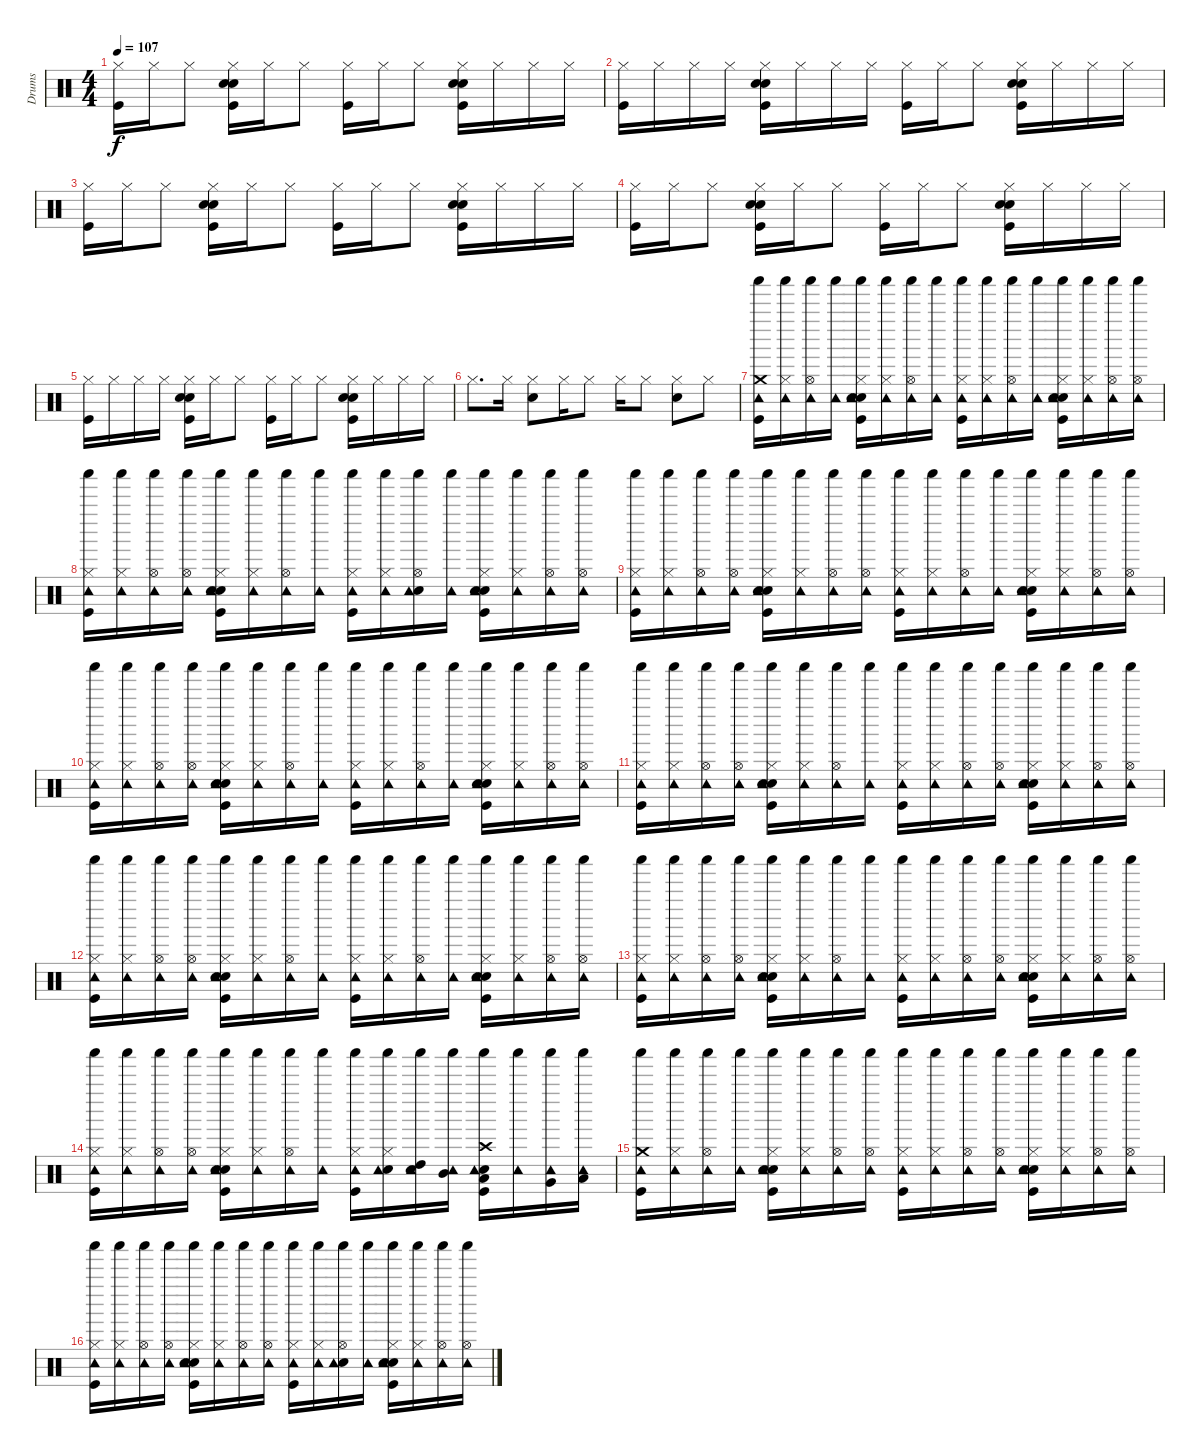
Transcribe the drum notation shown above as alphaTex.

\track ("Drums" "Drums") {instrument percussion}
\staff {score}
\articulation defaults
\ts (4 4)
\tempo 107
\clef neutral
\ks c
("Kick (hit)" "Hi-Hat (closed)").16{dy f} "Hi-Hat (closed)".16 "Hi-Hat (closed)".8 ("Kick (hit)" "Snare (hit) 2" "Hand Clap (hit)" "Hi-Hat (closed)").16 "Hi-Hat (closed)".16 "Hi-Hat (closed)".8 ("Kick (hit)" "Hi-Hat (closed)").16 "Hi-Hat (closed)".16 "Hi-Hat (closed)".8 ("Kick (hit)" "Snare (hit) 2" "Hand Clap (hit)" "Hi-Hat (closed)").16 "Hi-Hat (closed)".16 "Hi-Hat (closed)".16 "Hi-Hat (closed)".16 |
("Kick (hit)" "Hi-Hat (closed)").16 "Hi-Hat (closed)".16 "Hi-Hat (closed)".16 "Hi-Hat (closed)".16 ("Kick (hit)" "Snare (hit) 2" "Hand Clap (hit)" "Hi-Hat (closed)").16 "Hi-Hat (closed)".16 "Hi-Hat (closed)".16 "Hi-Hat (closed)".16 ("Kick (hit)" "Hi-Hat (closed)").16 "Hi-Hat (closed)".16 "Hi-Hat (closed)".8 ("Kick (hit)" "Snare (hit) 2" "Hand Clap (hit)" "Hi-Hat (closed)").16 "Hi-Hat (closed)".16 "Hi-Hat (closed)".16 "Hi-Hat (closed)".16 |
("Kick (hit)" "Hi-Hat (closed)").16 "Hi-Hat (closed)".16 "Hi-Hat (closed)".8 ("Kick (hit)" "Snare (hit) 2" "Hand Clap (hit)" "Hi-Hat (closed)").16 "Hi-Hat (closed)".16 "Hi-Hat (closed)".8 ("Kick (hit)" "Hi-Hat (closed)").16 "Hi-Hat (closed)".16 "Hi-Hat (closed)".8 ("Kick (hit)" "Snare (hit) 2" "Hand Clap (hit)" "Hi-Hat (closed)").16 "Hi-Hat (closed)".16 "Hi-Hat (closed)".16 "Hi-Hat (closed)".16 |
("Kick (hit)" "Hi-Hat (closed)").16 "Hi-Hat (closed)".16 "Hi-Hat (closed)".8 ("Kick (hit)" "Snare (hit) 2" "Hand Clap (hit)" "Hi-Hat (closed)").16 "Hi-Hat (closed)".16 "Hi-Hat (closed)".8 ("Kick (hit)" "Hi-Hat (closed)").16 "Hi-Hat (closed)".16 "Hi-Hat (closed)".8 ("Kick (hit)" "Snare (hit) 2" "Hand Clap (hit)" "Hi-Hat (closed)").16 "Hi-Hat (closed)".16 "Hi-Hat (closed)".16 "Hi-Hat (closed)".16 |
("Kick (hit)" "Hi-Hat (closed)").16 "Hi-Hat (closed)".16 "Hi-Hat (closed)".16 "Hi-Hat (closed)".16 ("Kick (hit)" "Snare (hit) 2" "Hand Clap (hit)" "Hi-Hat (closed)").16 "Hi-Hat (closed)".16 "Hi-Hat (closed)".8 ("Kick (hit)" "Hi-Hat (closed)").16 "Hi-Hat (closed)".16 "Hi-Hat (closed)".8 ("Kick (hit)" "Snare (hit) 2" "Hand Clap (hit)" "Hi-Hat (closed)").16 "Hi-Hat (closed)".16 "Hi-Hat (closed)".16 "Hi-Hat (closed)".16 |
"Hi-Hat (closed)".8{d} "Hi-Hat (closed)".16 ("Hand Clap (hit)" "Hi-Hat (closed)").8 "Hi-Hat (closed)".16 "Hi-Hat (closed)".8 "Hi-Hat (closed)".16 "Hi-Hat (closed)".8 ("Hand Clap (hit)" "Hi-Hat (closed)").8 "Hi-Hat (closed)".8 |
("Kick (hit)" "Tambourine (hit)" "Crash medium (hit)" "Shaker (hit)").16 ("Hi-Hat (closed)" "Tambourine (hit)" "Shaker (hit)").16 ("Hi-Hat (open)" "Tambourine (hit)" "Shaker (hit)").16 ("Tambourine (hit)" "Shaker (hit)").16 ("Kick (hit)" "Snare (hit) 2" "Hand Clap (hit)" "Hi-Hat (closed)" "Tambourine (hit)" "Shaker (hit)").16 ("Hi-Hat (closed)" "Tambourine (hit)" "Shaker (hit)").16 ("Hi-Hat (open)" "Tambourine (hit)" "Shaker (hit)").16 ("Tambourine (hit)" "Shaker (hit)").16 ("Kick (hit)" "Hi-Hat (closed)" "Tambourine (hit)" "Shaker (hit)").16 ("Hi-Hat (closed)" "Tambourine (hit)" "Shaker (hit)").16 ("Hi-Hat (open)" "Tambourine (hit)" "Shaker (hit)").16 ("Tambourine (hit)" "Shaker (hit)").16 ("Kick (hit)" "Snare (hit) 2" "Hand Clap (hit)" "Hi-Hat (closed)" "Tambourine (hit)" "Shaker (hit)").16 ("Hi-Hat (closed)" "Tambourine (hit)" "Shaker (hit)").16 ("Hi-Hat (open)" "Tambourine (hit)" "Shaker (hit)").16 ("Hi-Hat (open)" "Tambourine (hit)" "Shaker (hit)").16 |
("Kick (hit)" "Hi-Hat (closed)" "Tambourine (hit)" "Shaker (hit)").16 ("Hi-Hat (closed)" "Tambourine (hit)" "Shaker (hit)").16 ("Hi-Hat (open)" "Tambourine (hit)" "Shaker (hit)").16 ("Hi-Hat (open)" "Tambourine (hit)" "Shaker (hit)").16 ("Kick (hit)" "Snare (hit) 2" "Hand Clap (hit)" "Hi-Hat (closed)" "Tambourine (hit)" "Shaker (hit)").16 ("Hi-Hat (closed)" "Tambourine (hit)" "Shaker (hit)").16 ("Hi-Hat (open)" "Tambourine (hit)" "Shaker (hit)").16 ("Tambourine (hit)" "Shaker (hit)").16 ("Kick (hit)" "Hi-Hat (closed)" "Tambourine (hit)" "Shaker (hit)").16 ("Hi-Hat (closed)" "Tambourine (hit)" "Shaker (hit)").16 ("Hand Clap (hit)" "Hi-Hat (open)" "Tambourine (hit)" "Shaker (hit)").16 ("Tambourine (hit)" "Shaker (hit)").16 ("Kick (hit)" "Snare (hit) 2" "Hand Clap (hit)" "Hi-Hat (closed)" "Tambourine (hit)" "Shaker (hit)").16 ("Hi-Hat (closed)" "Tambourine (hit)" "Shaker (hit)").16 ("Hi-Hat (open)" "Tambourine (hit)" "Shaker (hit)").16 ("Hi-Hat (open)" "Tambourine (hit)" "Shaker (hit)").16 |
("Kick (hit)" "Hi-Hat (closed)" "Tambourine (hit)" "Shaker (hit)").16 ("Hi-Hat (closed)" "Tambourine (hit)" "Shaker (hit)").16 ("Hi-Hat (open)" "Tambourine (hit)" "Shaker (hit)").16 ("Hi-Hat (open)" "Tambourine (hit)" "Shaker (hit)").16 ("Kick (hit)" "Snare (hit) 2" "Hand Clap (hit)" "Hi-Hat (closed)" "Tambourine (hit)" "Shaker (hit)").16 ("Hi-Hat (closed)" "Tambourine (hit)" "Shaker (hit)").16 ("Hi-Hat (open)" "Tambourine (hit)" "Shaker (hit)").16 ("Hi-Hat (open)" "Tambourine (hit)" "Shaker (hit)").16 ("Kick (hit)" "Hi-Hat (closed)" "Tambourine (hit)" "Shaker (hit)").16 ("Hi-Hat (closed)" "Tambourine (hit)" "Shaker (hit)").16 ("Hi-Hat (open)" "Tambourine (hit)" "Shaker (hit)").16 ("Tambourine (hit)" "Shaker (hit)").16 ("Kick (hit)" "Snare (hit) 2" "Hand Clap (hit)" "Hi-Hat (closed)" "Tambourine (hit)" "Shaker (hit)").16 ("Hi-Hat (closed)" "Tambourine (hit)" "Shaker (hit)").16 ("Hi-Hat (open)" "Tambourine (hit)" "Shaker (hit)").16 ("Hi-Hat (open)" "Tambourine (hit)" "Shaker (hit)").16 |
("Kick (hit)" "Hi-Hat (closed)" "Tambourine (hit)" "Shaker (hit)").16 ("Hi-Hat (closed)" "Tambourine (hit)" "Shaker (hit)").16 ("Hi-Hat (open)" "Tambourine (hit)" "Shaker (hit)").16 ("Hi-Hat (open)" "Tambourine (hit)" "Shaker (hit)").16 ("Kick (hit)" "Snare (hit) 2" "Hand Clap (hit)" "Hi-Hat (closed)" "Tambourine (hit)" "Shaker (hit)").16 ("Hi-Hat (closed)" "Tambourine (hit)" "Shaker (hit)").16 ("Hi-Hat (open)" "Tambourine (hit)" "Shaker (hit)").16 ("Tambourine (hit)" "Shaker (hit)").16 ("Kick (hit)" "Hi-Hat (closed)" "Tambourine (hit)" "Shaker (hit)").16 ("Hi-Hat (closed)" "Tambourine (hit)" "Shaker (hit)").16 ("Hi-Hat (open)" "Tambourine (hit)" "Shaker (hit)").16 ("Tambourine (hit)" "Shaker (hit)").16 ("Kick (hit)" "Snare (hit) 2" "Hand Clap (hit)" "Hi-Hat (closed)" "Tambourine (hit)" "Shaker (hit)").16 ("Hi-Hat (closed)" "Tambourine (hit)" "Shaker (hit)").16 ("Hi-Hat (open)" "Tambourine (hit)" "Shaker (hit)").16 ("Hi-Hat (open)" "Tambourine (hit)" "Shaker (hit)").16 |
("Kick (hit)" "Hi-Hat (closed)" "Tambourine (hit)" "Shaker (hit)").16 ("Hi-Hat (closed)" "Tambourine (hit)" "Shaker (hit)").16 ("Hi-Hat (open)" "Tambourine (hit)" "Shaker (hit)").16 ("Hi-Hat (open)" "Tambourine (hit)" "Shaker (hit)").16 ("Kick (hit)" "Snare (hit) 2" "Hand Clap (hit)" "Hi-Hat (closed)" "Tambourine (hit)" "Shaker (hit)").16 ("Hi-Hat (closed)" "Tambourine (hit)" "Shaker (hit)").16 ("Hi-Hat (open)" "Tambourine (hit)" "Shaker (hit)").16 ("Tambourine (hit)" "Shaker (hit)").16 ("Kick (hit)" "Hi-Hat (closed)" "Tambourine (hit)" "Shaker (hit)").16 ("Hi-Hat (closed)" "Tambourine (hit)" "Shaker (hit)").16 ("Hi-Hat (open)" "Tambourine (hit)" "Shaker (hit)").16 ("Hi-Hat (open)" "Tambourine (hit)" "Shaker (hit)").16 ("Kick (hit)" "Snare (hit) 2" "Hand Clap (hit)" "Hi-Hat (closed)" "Tambourine (hit)" "Shaker (hit)").16 ("Hi-Hat (closed)" "Tambourine (hit)" "Shaker (hit)").16 ("Hi-Hat (open)" "Tambourine (hit)" "Shaker (hit)").16 ("Hi-Hat (open)" "Tambourine (hit)" "Shaker (hit)").16 |
("Kick (hit)" "Hi-Hat (closed)" "Tambourine (hit)" "Shaker (hit)").16 ("Hi-Hat (closed)" "Tambourine (hit)" "Shaker (hit)").16 ("Hi-Hat (open)" "Tambourine (hit)" "Shaker (hit)").16 ("Hi-Hat (open)" "Tambourine (hit)" "Shaker (hit)").16 ("Kick (hit)" "Snare (hit) 2" "Hand Clap (hit)" "Hi-Hat (closed)" "Tambourine (hit)" "Shaker (hit)").16 ("Hi-Hat (closed)" "Tambourine (hit)" "Shaker (hit)").16 ("Hi-Hat (open)" "Tambourine (hit)" "Shaker (hit)").16 ("Tambourine (hit)" "Shaker (hit)").16 ("Kick (hit)" "Hi-Hat (closed)" "Tambourine (hit)" "Shaker (hit)").16 ("Hi-Hat (closed)" "Tambourine (hit)" "Shaker (hit)").16 ("Hi-Hat (open)" "Tambourine (hit)" "Shaker (hit)").16 ("Tambourine (hit)" "Shaker (hit)").16 ("Kick (hit)" "Snare (hit) 2" "Hand Clap (hit)" "Hi-Hat (closed)" "Tambourine (hit)" "Shaker (hit)").16 ("Hi-Hat (closed)" "Tambourine (hit)" "Shaker (hit)").16 ("Hi-Hat (open)" "Tambourine (hit)" "Shaker (hit)").16 ("Hi-Hat (open)" "Tambourine (hit)" "Shaker (hit)").16 |
("Kick (hit)" "Hi-Hat (closed)" "Tambourine (hit)" "Shaker (hit)").16 ("Hi-Hat (closed)" "Tambourine (hit)" "Shaker (hit)").16 ("Hi-Hat (open)" "Tambourine (hit)" "Shaker (hit)").16 ("Hi-Hat (open)" "Tambourine (hit)" "Shaker (hit)").16 ("Kick (hit)" "Snare (hit) 2" "Hand Clap (hit)" "Hi-Hat (closed)" "Tambourine (hit)" "Shaker (hit)").16 ("Hi-Hat (closed)" "Tambourine (hit)" "Shaker (hit)").16 ("Hi-Hat (open)" "Tambourine (hit)" "Shaker (hit)").16 ("Tambourine (hit)" "Shaker (hit)").16 ("Kick (hit)" "Hi-Hat (closed)" "Tambourine (hit)" "Shaker (hit)").16 ("Hi-Hat (closed)" "Tambourine (hit)" "Shaker (hit)").16 ("Hi-Hat (open)" "Tambourine (hit)" "Shaker (hit)").16 ("Hi-Hat (open)" "Tambourine (hit)" "Shaker (hit)").16 ("Kick (hit)" "Snare (hit) 2" "Hand Clap (hit)" "Hi-Hat (closed)" "Tambourine (hit)" "Shaker (hit)").16 ("Hi-Hat (closed)" "Tambourine (hit)" "Shaker (hit)").16 ("Hi-Hat (open)" "Tambourine (hit)" "Shaker (hit)").16 ("Hi-Hat (open)" "Tambourine (hit)" "Shaker (hit)").16 |
("Kick (hit)" "Hi-Hat (closed)" "Tambourine (hit)" "Shaker (hit)").16 ("Hi-Hat (closed)" "Tambourine (hit)" "Shaker (hit)").16 ("Hi-Hat (open)" "Tambourine (hit)" "Shaker (hit)").16 ("Hi-Hat (open)" "Tambourine (hit)" "Shaker (hit)").16 ("Kick (hit)" "Snare (hit) 2" "Hand Clap (hit)" "Hi-Hat (closed)" "Tambourine (hit)" "Shaker (hit)").16 ("Hi-Hat (closed)" "Tambourine (hit)" "Shaker (hit)").16 ("Hi-Hat (open)" "Tambourine (hit)" "Shaker (hit)").16 ("Tambourine (hit)" "Shaker (hit)").16 ("Kick (hit)" "Hi-Hat (closed)" "Tambourine (hit)" "Shaker (hit)").16 ("Snare (hit) 2" "Hi-Hat (closed)" "Tambourine (hit)" "Shaker (hit)").16 ("Hand Clap (hit)" "High Tom (hit)" "Tambourine (hit)" "Shaker (hit)").16 ("Mid Tom (hit)" "Tambourine (hit)" "Shaker (hit)").16 ("Kick (hit)" "Hand Clap (hit)" "Low Tom (hit)" "Crash high (hit)" "Tambourine (hit)" "Shaker (hit)").16 ("Tambourine (hit)" "Shaker (hit)").16 ("Very Low Tom (hit)" "Tambourine (hit)" "Shaker (hit)").16 ("Low Floor Tom (hit)" "Tambourine (hit)" "Shaker (hit)").16 |
("Kick (hit)" "Tambourine (hit)" "Crash medium (hit)" "Shaker (hit)").16 ("Hi-Hat (closed)" "Tambourine (hit)" "Shaker (hit)").16 ("Hi-Hat (open)" "Tambourine (hit)" "Shaker (hit)").16 ("Tambourine (hit)" "Shaker (hit)").16 ("Kick (hit)" "Snare (hit) 2" "Hand Clap (hit)" "Hi-Hat (closed)" "Tambourine (hit)" "Shaker (hit)").16 ("Hi-Hat (closed)" "Tambourine (hit)" "Shaker (hit)").16 ("Hi-Hat (open)" "Tambourine (hit)" "Shaker (hit)").16 ("Hi-Hat (open)" "Tambourine (hit)" "Shaker (hit)").16 ("Kick (hit)" "Hi-Hat (closed)" "Tambourine (hit)" "Shaker (hit)").16 ("Hi-Hat (closed)" "Tambourine (hit)" "Shaker (hit)").16 ("Hi-Hat (open)" "Tambourine (hit)" "Shaker (hit)").16 ("Hi-Hat (open)" "Tambourine (hit)" "Shaker (hit)").16 ("Kick (hit)" "Snare (hit) 2" "Hand Clap (hit)" "Hi-Hat (closed)" "Tambourine (hit)" "Shaker (hit)").16 ("Hi-Hat (closed)" "Tambourine (hit)" "Shaker (hit)").16 ("Hi-Hat (open)" "Tambourine (hit)" "Shaker (hit)").16 ("Hi-Hat (open)" "Tambourine (hit)" "Shaker (hit)").16 |
("Kick (hit)" "Hi-Hat (closed)" "Tambourine (hit)" "Shaker (hit)").16 ("Hi-Hat (closed)" "Tambourine (hit)" "Shaker (hit)").16 ("Hi-Hat (open)" "Tambourine (hit)" "Shaker (hit)").16 ("Hi-Hat (open)" "Tambourine (hit)" "Shaker (hit)").16 ("Kick (hit)" "Snare (hit) 2" "Hand Clap (hit)" "Hi-Hat (closed)" "Tambourine (hit)" "Shaker (hit)").16 ("Hi-Hat (closed)" "Tambourine (hit)" "Shaker (hit)").16 ("Hi-Hat (open)" "Tambourine (hit)" "Shaker (hit)").16 ("Hi-Hat (open)" "Tambourine (hit)" "Shaker (hit)").16 ("Kick (hit)" "Hi-Hat (closed)" "Tambourine (hit)" "Shaker (hit)").16 ("Hi-Hat (closed)" "Tambourine (hit)" "Shaker (hit)").16 ("Hand Clap (hit)" "Hi-Hat (open)" "Tambourine (hit)" "Shaker (hit)").16 ("Tambourine (hit)" "Shaker (hit)").16 ("Kick (hit)" "Snare (hit) 2" "Hand Clap (hit)" "Hi-Hat (closed)" "Tambourine (hit)" "Shaker (hit)").16 ("Hi-Hat (closed)" "Tambourine (hit)" "Shaker (hit)").16 ("Hi-Hat (open)" "Tambourine (hit)" "Shaker (hit)").16 ("Hi-Hat (open)" "Tambourine (hit)" "Shaker (hit)").16
